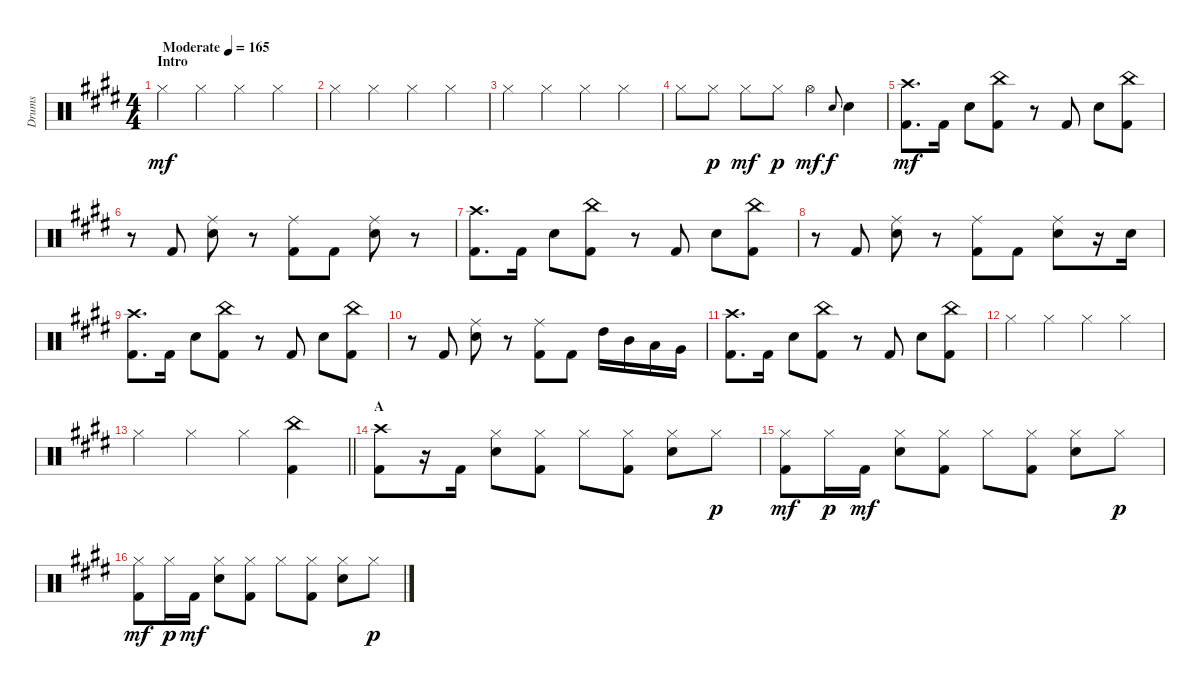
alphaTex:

\track ("Drums" "Drums") {instrument percussion}
\staff {score}
\articulation defaults
\ts (4 4)
\section ("" "Intro")
\tempo (165 "Moderate")
\clef neutral
\ks e "Hi-Hat (closed)".4{dy mf} "Hi-Hat (closed)".4 "Hi-Hat (closed)".4 "Hi-Hat (closed)".4
|
"Hi-Hat (closed)".4 "Hi-Hat (closed)".4 "Hi-Hat (closed)".4 "Hi-Hat (closed)".4 |
"Hi-Hat (closed)".4 "Hi-Hat (closed)".4 "Hi-Hat (closed)".4 "Hi-Hat (closed)".4 |
"Hi-Hat (closed)".8 "Hi-Hat (closed)".8{dy p} "Hi-Hat (closed)".8{dy mf} "Hi-Hat (closed)".8{dy p} "Hi-Hat (open)".4{dy mf} "Electric Snare (hit)".8{gr onbeat dy f} "Electric Snare (hit)".4 |
("Crash high (hit)" "Kick (hit) 2").8{d dy mf} "Kick (hit) 2".16 "Electric Snare (hit)".8 ("China (hit)" "Kick (hit) 2").8 r.8 "Kick (hit) 2".8 "Electric Snare (hit)".8 ("China (hit)" "Kick (hit) 2").8 |
r.8 "Kick (hit) 2".8 ("Ride (middle)" "Electric Snare (hit)").8 r.8 ("Ride (middle)" "Kick (hit) 2").8 "Kick (hit) 2".8 ("Ride (middle)" "Electric Snare (hit)").8 r.8 |
("Crash high (hit)" "Kick (hit) 2").8{d} "Kick (hit) 2".16 "Electric Snare (hit)".8 ("China (hit)" "Kick (hit) 2").8 r.8 "Kick (hit) 2".8 "Electric Snare (hit)".8 ("China (hit)" "Kick (hit) 2").8 |
r.8 "Kick (hit) 2".8 ("Ride (middle)" "Electric Snare (hit)").8 r.8 ("Ride (middle)" "Kick (hit) 2").8 "Kick (hit) 2".8 ("Ride (middle)" "Electric Snare (hit)").8 r.16 "Electric Snare (hit)".16 |
("Crash high (hit)" "Kick (hit) 2").8{d} "Kick (hit) 2".16 "Electric Snare (hit)".8 ("China (hit)" "Kick (hit) 2").8 r.8 "Kick (hit) 2".8 "Electric Snare (hit)".8 ("China (hit)" "Kick (hit) 2").8 |
r.8 "Kick (hit) 2".8 ("Ride (middle)" "Electric Snare (hit)").8 r.8 ("Ride (middle)" "Kick (hit) 2").8 "Kick (hit) 2".8 "High Tom (hit)".16 "Mid Tom (hit)".16 "Low Tom (hit)".16 "Very Low Tom (hit)".16 |
("Crash high (hit)" "Kick (hit) 2").8{d} "Kick (hit) 2".16 "Electric Snare (hit)".8 ("China (hit)" "Kick (hit) 2").8 r.8 "Kick (hit) 2".8 "Electric Snare (hit)".8 ("China (hit)" "Kick (hit) 2").8 |
"Hi-Hat (closed)".4 "Hi-Hat (closed)".4 "Hi-Hat (closed)".4 "Hi-Hat (closed)".4 |
\barLineRight lightlight "Hi-Hat (closed)".4 "Hi-Hat (closed)".4 "Hi-Hat (closed)".4
("China (hit)" "Kick (hit) 2").4 |
\section ("" "A")
("Crash high (hit)" "Kick (hit) 2").8 r.16 "Kick (hit) 2".16 ("Hi-Hat (closed)" "Electric Snare (hit)").8 ("Hi-Hat (closed)" "Kick (hit) 2").8 "Hi-Hat (closed)".8 ("Hi-Hat (closed)" "Kick (hit) 2").8 ("Hi-Hat (closed)" "Electric Snare (hit)").8 "Hi-Hat (closed)".8{dy p} |
("Hi-Hat (closed)" "Kick (hit) 2").8{dy mf} "Hi-Hat (closed)".16{dy p} "Kick (hit) 2".16{dy mf} ("Hi-Hat (closed)" "Electric Snare (hit)").8 ("Hi-Hat (closed)" "Kick (hit) 2").8 "Hi-Hat (closed)".8 ("Hi-Hat (closed)" "Kick (hit) 2").8 ("Hi-Hat (closed)" "Electric Snare (hit)").8 "Hi-Hat (closed)".8{dy p} |
("Hi-Hat (closed)" "Kick (hit) 2").8{dy mf} "Hi-Hat (closed)".16{dy p} "Kick (hit) 2".16{dy mf} ("Hi-Hat (closed)" "Electric Snare (hit)").8 ("Hi-Hat (closed)" "Kick (hit) 2").8 "Hi-Hat (closed)".8 ("Hi-Hat (closed)" "Kick (hit) 2").8 ("Hi-Hat (closed)" "Electric Snare (hit)").8 "Hi-Hat (closed)".8{dy p}
